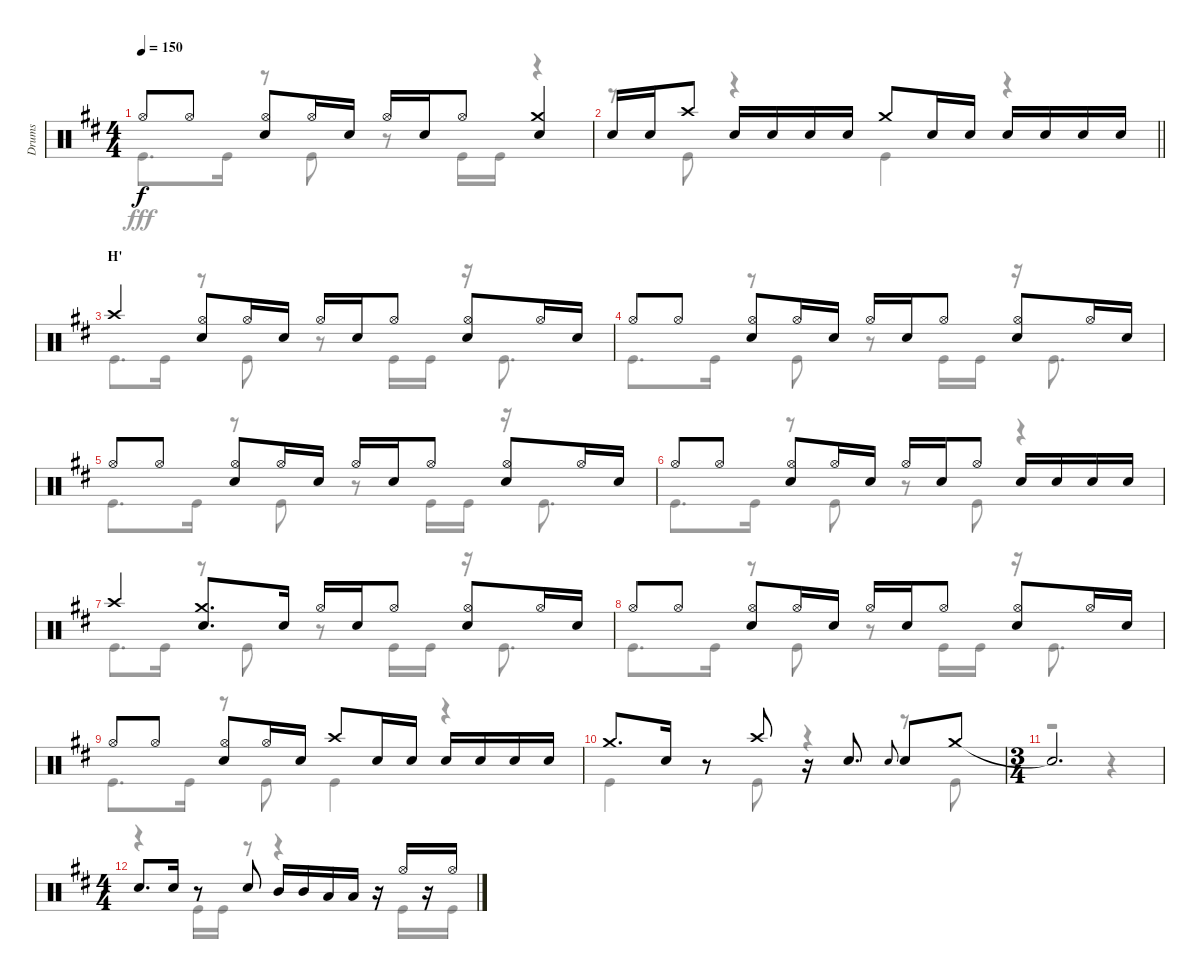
\track ("Drums" "Drums") {instrument percussion}
\staff {score}
\articulation defaults
\voice
\ts (4 4)
\tempo 150
\clef neutral
\ks d "Hi-Hat (open)".8{dy f} "Hi-Hat (open)".8
("Hi-Hat (open)" "Snare (hit) 2").8 "Hi-Hat (open)".16 "Snare (hit) 2".16 "Hi-Hat (open)".16 "Snare (hit) 2".16 "Hi-Hat (open)".8 ("Crash medium (hit)" "Snare (hit) 2").4 |
\barLineRight lightlight "Snare (hit) 2".16 "Snare (hit) 2".16 "Crash high (hit)".8 "Snare (hit) 2".16 "Snare (hit) 2".16 "Snare (hit) 2".16 "Snare (hit) 2".16 "Crash medium (hit)".8 "Snare (hit) 2".16 "Snare (hit) 2".16 "Snare (hit) 2".16 "Snare (hit) 2".16 "Snare (hit) 2".16 "Snare (hit) 2".16
|
\section ("" "H'")
"Crash high (hit)".4 ("Hi-Hat (open)" "Snare (hit) 2").8 "Hi-Hat (open)".16 "Snare (hit) 2".16 "Hi-Hat (open)".16 "Snare (hit) 2".16 "Hi-Hat (open)".8 ("Hi-Hat (open)" "Snare (hit) 2").8 "Hi-Hat (open)".16 "Snare (hit) 2".16 |
"Hi-Hat (open)".8 "Hi-Hat (open)".8 ("Hi-Hat (open)" "Snare (hit) 2").8 "Hi-Hat (open)".16 "Snare (hit) 2".16 "Hi-Hat (open)".16 "Snare (hit) 2".16 "Hi-Hat (open)".8 ("Hi-Hat (open)" "Snare (hit) 2").8 "Hi-Hat (open)".16 "Snare (hit) 2".16 |
"Hi-Hat (open)".8 "Hi-Hat (open)".8 ("Hi-Hat (open)" "Snare (hit) 2").8 "Hi-Hat (open)".16 "Snare (hit) 2".16 "Hi-Hat (open)".16 "Snare (hit) 2".16 "Hi-Hat (open)".8 ("Hi-Hat (open)" "Snare (hit) 2").8 "Hi-Hat (open)".16 "Snare (hit) 2".16 |
"Hi-Hat (open)".8 "Hi-Hat (open)".8 ("Hi-Hat (open)" "Snare (hit) 2").8 "Hi-Hat (open)".16 "Snare (hit) 2".16 "Hi-Hat (open)".16 "Snare (hit) 2".16 "Hi-Hat (open)".8 "Snare (hit) 2".16 "Snare (hit) 2".16 "Snare (hit) 2".16 "Snare (hit) 2".16 |
"Crash high (hit)".4 ("Crash medium (hit)" "Snare (hit) 2").8{d} "Snare (hit) 2".16 "Hi-Hat (open)".16 "Snare (hit) 2".16 "Hi-Hat (open)".8 ("Hi-Hat (open)" "Snare (hit) 2").8 "Hi-Hat (open)".16 "Snare (hit) 2".16 |
"Hi-Hat (open)".8 "Hi-Hat (open)".8 ("Hi-Hat (open)" "Snare (hit) 2").8 "Hi-Hat (open)".16 "Snare (hit) 2".16 "Hi-Hat (open)".16 "Snare (hit) 2".16 "Hi-Hat (open)".8 ("Hi-Hat (open)" "Snare (hit) 2").8 "Hi-Hat (open)".16 "Snare (hit) 2".16 |
"Hi-Hat (open)".8 "Hi-Hat (open)".8 ("Hi-Hat (open)" "Snare (hit) 2").8 "Hi-Hat (open)".16 "Snare (hit) 2".16 "Crash high (hit)".8 "Snare (hit) 2".16 "Snare (hit) 2".16 "Snare (hit) 2".16 "Snare (hit) 2".16 "Snare (hit) 2".16 "Snare (hit) 2".16 |
"Crash medium (hit)".8{d} "Snare (hit) 2".16 r.8 "Crash high (hit)".8 r.16 "Snare (hit) 2".8{d} "Snare (hit) 2".8{gr onbeat} "Snare (hit) 2".8 "Crash medium (hit)".8 |
\ts (3 4)
"Snare (hit)"{t}.2{d} |
\ts (4 4)
"Snare (hit) 2".8{d} "Snare (hit) 2".16 r.8 "Snare (hit) 2".8 "Mid Tom (hit)".16 "Mid Tom (hit)".16 "Low Tom (hit)".16 "Low Tom (hit)".16 r.16 "Hi-Hat (open)".16 r.16 "Hi-Hat (open)".16
\voice
\clef neutral
\ottava regular
\simile none
\ks d "Kick (hit)".8{d dy fff} "Kick (hit)".16
r.8 "Kick (hit)".8 r.8 "Kick (hit)".16 "Kick (hit)".16 r.4 |
\barLineRight lightlight
r.8 "Kick (hit)".8 r.4 "Kick (hit)".4 r.4 |
"Kick (hit)".8{d} "Kick (hit)".16 r.8 "Kick (hit)".8 r.8 "Kick (hit)".16 "Kick (hit)".16 r.16 "Kick (hit)".8{d} |
"Kick (hit)".8{d} "Kick (hit)".16 r.8 "Kick (hit)".8 r.8 "Kick (hit)".16 "Kick (hit)".16 r.16 "Kick (hit)".8{d} |
"Kick (hit)".8{d} "Kick (hit)".16 r.8 "Kick (hit)".8 r.8 "Kick (hit)".16 "Kick (hit)".16 r.16 "Kick (hit)".8{d} |
"Kick (hit)".8{d} "Kick (hit)".16 r.8 "Kick (hit)".8 r.8 "Kick (hit)".8 r.4 |
"Kick (hit)".8{d} "Kick (hit)".16 r.8 "Kick (hit)".8 r.8 "Kick (hit)".16 "Kick (hit)".16 r.16 "Kick (hit)".8{d} |
"Kick (hit)".8{d} "Kick (hit)".16 r.8 "Kick (hit)".8 r.8 "Kick (hit)".16 "Kick (hit)".16 r.16 "Kick (hit)".8{d} |
"Kick (hit)".8{d} "Kick (hit)".16 r.8 "Kick (hit)".8 "Kick (hit)".4 r.4 |
"Kick (hit)".4 r.8 "Kick (hit)".8 r.4 r.8 "Kick (hit)".8 |
r.2 r.4 |
r.4 "Kick (hit)".16 "Kick (hit)".16 r.8 r.4 r.16 "Kick (hit)".16 r.16 "Kick (hit)".16
